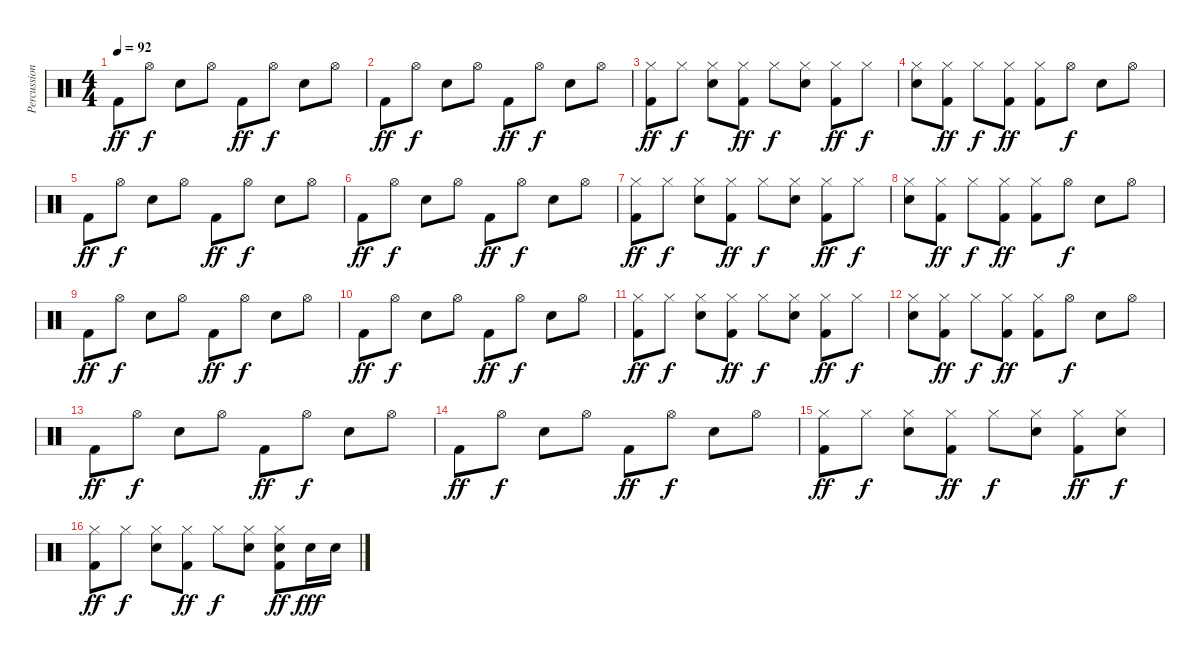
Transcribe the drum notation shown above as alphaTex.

\track ("Percussion" "Percussion") {instrument percussion}
\staff {score}
\articulation defaults
\ts (4 4)
\tempo 92
\clef neutral
\ks c "Kick (hit) 2".8{dy ff} "Hi-Hat (open)".8{dy f} "Snare (hit) 2".8 "Hi-Hat (open)".8 "Kick (hit) 2".8{dy ff} "Hi-Hat (open)".8{dy f} "Snare (hit) 2".8 "Hi-Hat (open)".8
|
"Kick (hit) 2".8{dy ff} "Hi-Hat (open)".8{dy f} "Snare (hit) 2".8 "Hi-Hat (open)".8 "Kick (hit) 2".8{dy ff} "Hi-Hat (open)".8{dy f} "Snare (hit) 2".8 "Hi-Hat (open)".8 |
("Hi-Hat (closed)" "Kick (hit) 2").8{dy ff} "Hi-Hat (closed)".8{dy f} ("Hi-Hat (closed)" "Snare (hit) 2").8 ("Hi-Hat (closed)" "Kick (hit) 2").8{dy ff} "Hi-Hat (closed)".8{dy f} ("Hi-Hat (closed)" "Snare (hit) 2").8 ("Hi-Hat (closed)" "Kick (hit) 2").8{dy ff} "Hi-Hat (closed)".8{dy f} |
("Hi-Hat (closed)" "Snare (hit) 2").8 ("Hi-Hat (closed)" "Kick (hit) 2").8{dy ff} "Hi-Hat (closed)".8{dy f} ("Hi-Hat (closed)" "Kick (hit) 2").8{dy ff} ("Hi-Hat (closed)" "Kick (hit) 2").8 "Hi-Hat (open)".8{dy f} "Snare (hit) 2".8 "Hi-Hat (open)".8 |
"Kick (hit) 2".8{dy ff} "Hi-Hat (open)".8{dy f} "Snare (hit) 2".8 "Hi-Hat (open)".8 "Kick (hit) 2".8{dy ff} "Hi-Hat (open)".8{dy f} "Snare (hit) 2".8 "Hi-Hat (open)".8 |
"Kick (hit) 2".8{dy ff} "Hi-Hat (open)".8{dy f} "Snare (hit) 2".8 "Hi-Hat (open)".8 "Kick (hit) 2".8{dy ff} "Hi-Hat (open)".8{dy f} "Snare (hit) 2".8 "Hi-Hat (open)".8 |
("Hi-Hat (closed)" "Kick (hit) 2").8{dy ff} "Hi-Hat (closed)".8{dy f} ("Hi-Hat (closed)" "Snare (hit) 2").8 ("Hi-Hat (closed)" "Kick (hit) 2").8{dy ff} "Hi-Hat (closed)".8{dy f} ("Hi-Hat (closed)" "Snare (hit) 2").8 ("Hi-Hat (closed)" "Kick (hit) 2").8{dy ff} "Hi-Hat (closed)".8{dy f} |
("Hi-Hat (closed)" "Snare (hit) 2").8 ("Hi-Hat (closed)" "Kick (hit) 2").8{dy ff} "Hi-Hat (closed)".8{dy f} ("Hi-Hat (closed)" "Kick (hit) 2").8{dy ff} ("Hi-Hat (closed)" "Kick (hit) 2").8 "Hi-Hat (open)".8{dy f} "Snare (hit) 2".8 "Hi-Hat (open)".8 |
"Kick (hit) 2".8{dy ff} "Hi-Hat (open)".8{dy f} "Snare (hit) 2".8 "Hi-Hat (open)".8 "Kick (hit) 2".8{dy ff} "Hi-Hat (open)".8{dy f} "Snare (hit) 2".8 "Hi-Hat (open)".8 |
"Kick (hit) 2".8{dy ff} "Hi-Hat (open)".8{dy f} "Snare (hit) 2".8 "Hi-Hat (open)".8 "Kick (hit) 2".8{dy ff} "Hi-Hat (open)".8{dy f} "Snare (hit) 2".8 "Hi-Hat (open)".8 |
("Hi-Hat (closed)" "Kick (hit) 2").8{dy ff} "Hi-Hat (closed)".8{dy f} ("Hi-Hat (closed)" "Snare (hit) 2").8 ("Hi-Hat (closed)" "Kick (hit) 2").8{dy ff} "Hi-Hat (closed)".8{dy f} ("Hi-Hat (closed)" "Snare (hit) 2").8 ("Hi-Hat (closed)" "Kick (hit) 2").8{dy ff} "Hi-Hat (closed)".8{dy f} |
("Hi-Hat (closed)" "Snare (hit) 2").8 ("Hi-Hat (closed)" "Kick (hit) 2").8{dy ff} "Hi-Hat (closed)".8{dy f} ("Hi-Hat (closed)" "Kick (hit) 2").8{dy ff} ("Hi-Hat (closed)" "Kick (hit) 2").8 "Hi-Hat (open)".8{dy f} "Snare (hit) 2".8 "Hi-Hat (open)".8 |
"Kick (hit) 2".8{dy ff} "Hi-Hat (open)".8{dy f} "Snare (hit) 2".8 "Hi-Hat (open)".8 "Kick (hit) 2".8{dy ff} "Hi-Hat (open)".8{dy f} "Snare (hit) 2".8 "Hi-Hat (open)".8 |
"Kick (hit) 2".8{dy ff} "Hi-Hat (open)".8{dy f} "Snare (hit) 2".8 "Hi-Hat (open)".8 "Kick (hit) 2".8{dy ff} "Hi-Hat (open)".8{dy f} "Snare (hit) 2".8 "Hi-Hat (open)".8 |
("Hi-Hat (closed)" "Kick (hit) 2").8{dy ff} "Hi-Hat (closed)".8{dy f} ("Hi-Hat (closed)" "Snare (hit) 2").8 ("Hi-Hat (closed)" "Kick (hit) 2").8{dy ff} "Hi-Hat (closed)".8{dy f} ("Hi-Hat (closed)" "Snare (hit) 2").8 ("Hi-Hat (closed)" "Kick (hit) 2").8{dy ff} ("Hi-Hat (closed)" "Snare (hit) 2").8{dy f} |
("Hi-Hat (closed)" "Kick (hit) 2").8{dy ff} "Hi-Hat (closed)".8{dy f} ("Hi-Hat (closed)" "Snare (hit) 2").8 ("Hi-Hat (closed)" "Kick (hit) 2").8{dy ff} "Hi-Hat (closed)".8{dy f} ("Hi-Hat (closed)" "Snare (hit) 2").8 ("Hi-Hat (closed)" "Snare (hit) 2" "Kick (hit) 2").8{dy ff} "Snare (hit) 2".16{dy fff} "Snare (hit) 2".16
